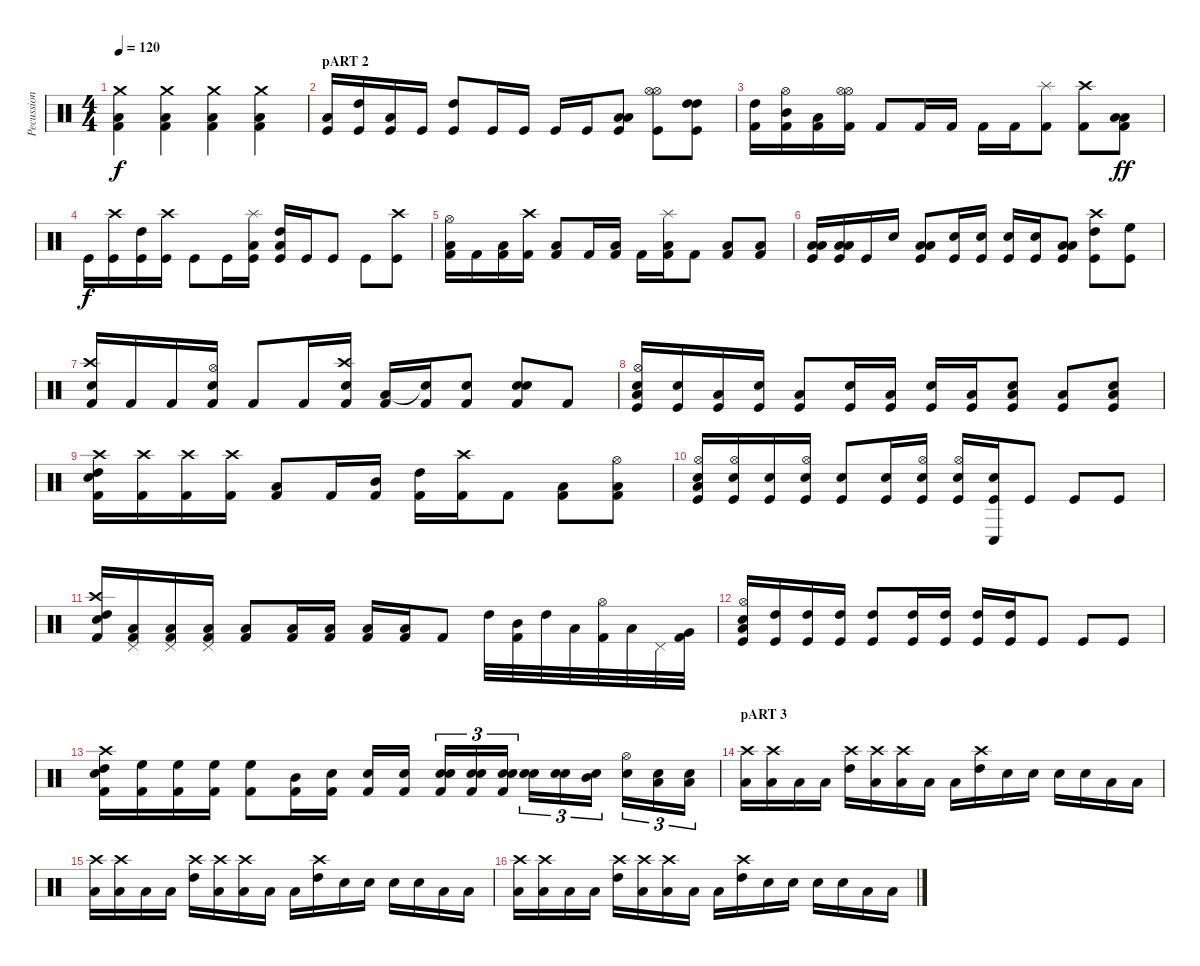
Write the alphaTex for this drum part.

\track ("Pecussion" "Pecussion") {instrument percussion}
\staff {score}
\articulation defaults
\ts (4 4)
\tempo 120
\clef neutral
\ks c
("Crash medium (hit)" "Low Floor Tom (hit)" "Kick (hit) 2").4{dy f} ("Crash medium (hit)" "Low Floor Tom (hit)" "Kick (hit) 2").4 ("Crash medium (hit)" "Low Floor Tom (hit)" "Kick (hit) 2").4 ("Crash medium (hit)" "Low Floor Tom (hit)" "Kick (hit) 2").4 |
\section ("" "pART 2")
("Low Floor Tom (hit)" "Kick (hit)").16 ("High Tom (hit)" "Kick (hit)").16 ("Low Floor Tom (hit)" "Kick (hit)").16 "Kick (hit)".16 ("High Tom (hit)" "Kick (hit)").8 "Kick (hit)".16 "Kick (hit)".16 "Kick (hit)".16 "Kick (hit)".16 ("Low Floor Tom (hit)" "Low Floor Tom (hit)" "Kick (hit)").8 ("Hi-Hat (open)" "Hi-Hat (open)" "Kick (hit)").8 ("High Tom (hit)" "High Tom (hit)" "Kick (hit)").8 |
("High Tom (hit)" "Kick (hit) 2").16 ("Mid Tom (hit)" "Hi-Hat (open)" "Kick (hit) 2").16 ("Low Tom (hit)" "Kick (hit) 2").16 ("Hi-Hat (open)" "Hi-Hat (open)" "Kick (hit) 2").16 "Kick (hit) 2".8 "Kick (hit) 2".16 "Kick (hit) 2".16 "Kick (hit) 2".16 "Kick (hit) 2".16 ("Splash (hit)" "Kick (hit) 2").8 ("Crash high (hit)" "Kick (hit) 2").8 ("Low Floor Tom (hit)" "Low Floor Tom (hit)" "Kick (hit) 2").8{dy ff} |
"Kick (hit)".16{dy f} ("Crash high (hit)" "Kick (hit)").16 ("High Tom (hit)" "Kick (hit)").16 ("Crash high (hit)" "Kick (hit)").16 "Kick (hit)".8 "Kick (hit)".16 ("Splash (hit)" "Low Tom (hit)" "Kick (hit)").16 ("High Tom (hit)" "Low Tom (hit)" "Kick (hit)").16 "Kick (hit)".16 "Kick (hit)".8 "Kick (hit)".8 ("Crash high (hit)" "Kick (hit)").8 |
("Hi-Hat (open)" "Low Tom (hit)" "Kick (hit) 2").16 "Kick (hit) 2".16 ("Low Tom (hit)" "Kick (hit) 2").16 ("Crash high (hit)" "Kick (hit) 2").16 ("Low Tom (hit)" "Kick (hit) 2").8 "Kick (hit) 2".16 ("Low Tom (hit)" "Kick (hit) 2").16 "Kick (hit) 2".16 ("Splash (hit)" "Low Tom (hit)" "Kick (hit) 2").16 "Kick (hit) 2".8 ("Low Tom (hit)" "Kick (hit) 2").8 ("Low Tom (hit)" "Kick (hit) 2").8 |
("Low Floor Tom (hit)" "Low Floor Tom (hit)" "Kick (hit)").16 ("Low Floor Tom (hit)" "Low Floor Tom (hit)" "Kick (hit)").16 "Kick (hit)".16 "Snare (hit)".16 ("Low Floor Tom (hit)" "Low Floor Tom (hit)" "Kick (hit)").8 ("Electric Snare (hit)" "Kick (hit)").16 ("Electric Snare (hit)" "Kick (hit)").16 ("Electric Snare (hit)" "Kick (hit)").16 ("Electric Snare (hit)" "Kick (hit)").16 ("Low Tom (hit)" "Low Tom (hit)" "Kick (hit)").8 ("High Tom (hit)" "Crash high (hit)" "Kick (hit)").8 ("High Floor Tom (hit)" "Kick (hit)").8 |
("Crash high (hit)" "Electric Snare (hit)" "Kick (hit) 2").16 "Kick (hit) 2".16 "Kick (hit) 2".16 ("Hi-Hat (open)" "Electric Snare (hit)" "Kick (hit) 2").16 "Kick (hit) 2".8 "Kick (hit) 2".16 ("Crash high (hit)" "Electric Snare (hit)" "Kick (hit) 2").16 ("Low Tom (hit)" "Kick (hit) 2").16 ("Snare (hit)"{t} "Kick (hit) 2").16 ("Electric Snare (hit)" "Kick (hit) 2").8 ("Electric Snare (hit)" "Snare (hit) 2" "Kick (hit) 2").8 "Kick (hit) 2".8 |
("Low Tom (hit)" "Electric Snare (hit)" "Hi-Hat (open)" "Kick (hit)").16 ("Electric Snare (hit)" "Kick (hit)").16 ("Low Tom (hit)" "Kick (hit)").16 ("Electric Snare (hit)" "Kick (hit)").16 ("Low Tom (hit)" "Kick (hit)").8 ("Electric Snare (hit)" "Kick (hit)").16 ("Low Floor Tom (hit)" "Kick (hit)").16 ("Electric Snare (hit)" "Kick (hit)").16 ("Low Floor Tom (hit)" "Kick (hit)").16 ("Electric Snare (hit)" "Low Floor Tom (hit)" "Kick (hit)").8 ("Low Floor Tom (hit)" "Kick (hit)").8 ("Electric Snare (hit)" "Low Floor Tom (hit)" "Kick (hit)").8 |
("Crash high (hit)" "Electric Snare (hit)" "High Tom (hit)" "Kick (hit) 2").16 ("Crash high (hit)" "Kick (hit) 2").16 ("Crash high (hit)" "Kick (hit) 2").16 ("Crash high (hit)" "Kick (hit) 2").16 ("Low Tom (hit)" "Kick (hit) 2").8 "Kick (hit) 2".16 ("Mid Tom (hit)" "Kick (hit) 2").16 ("High Tom (hit)" "Kick (hit) 2").16 ("Crash high (hit)" "Kick (hit) 2").16 "Kick (hit) 2".8 ("Low Tom (hit)" "Kick (hit) 2").8 ("Hi-Hat (open)" "Low Floor Tom (hit)" "Kick (hit) 2").8 |
("Low Tom (hit)" "Electric Snare (hit)" "Hi-Hat (open)" "Kick (hit)").16 ("Hi-Hat (open)" "Electric Snare (hit)" "Kick (hit)").16 ("Electric Snare (hit)" "Kick (hit)").16 ("Hi-Hat (open)" "Electric Snare (hit)" "Kick (hit)").16 ("Electric Snare (hit)" "Kick (hit)").8 ("Electric Snare (hit)" "Kick (hit)").16 ("Hi-Hat (open)" "Electric Snare (hit)" "Kick (hit)").16 ("Hi-Hat (open)" "Electric Snare (hit)" "Kick (hit)").16 ("Conga low (hit)" "Electric Snare (hit)" "Kick (hit)").16 "Kick (hit)".8 "Kick (hit)".8 "Kick (hit)".8 |
("Crash high (hit)" "Electric Snare (hit)" "High Tom (hit)" "Kick (hit) 2").16 ("Pedal Hi-Hat (hit)" "Low Tom (hit)" "Kick (hit) 2").16 ("Pedal Hi-Hat (hit)" "Low Tom (hit)" "Kick (hit) 2").16 ("Pedal Hi-Hat (hit)" "Low Tom (hit)" "Kick (hit) 2").16 ("Low Tom (hit)" "Kick (hit) 2").8 ("Low Tom (hit)" "Kick (hit) 2").16 ("Low Tom (hit)" "Kick (hit) 2").16 ("Low Tom (hit)" "Kick (hit) 2").16 ("Low Tom (hit)" "Kick (hit) 2").16 "Kick (hit) 2".8 "High Tom (hit)".32 ("Mid Tom (hit)" "Kick (hit) 2").32 "High Tom (hit)".32 "Low Tom (hit)".32 ("Hi-Hat (open)" "Kick (hit) 2").32 "Low Tom (hit)".32 "Pedal Hi-Hat (hit)".32 ("Very Low Tom (hit)" "Kick (hit) 2").32 |
("Low Tom (hit)" "Electric Snare (hit)" "Hi-Hat (open)" "Kick (hit)").16 ("High Tom (hit)" "Kick (hit)").16 ("High Tom (hit)" "Kick (hit)").16 ("High Tom (hit)" "Kick (hit)").16 ("High Tom (hit)" "Kick (hit)").8 ("High Tom (hit)" "Kick (hit)").16 ("High Tom (hit)" "Kick (hit)").16 ("High Tom (hit)" "Kick (hit)").16 ("High Tom (hit)" "Kick (hit)").16 "Kick (hit)".8 "Kick (hit)".8 "Kick (hit)".8 |
("Crash high (hit)" "Electric Snare (hit)" "High Tom (hit)" "Kick (hit) 2").16 ("High Floor Tom (hit)" "Kick (hit) 2").16 ("High Floor Tom (hit)" "Kick (hit) 2").16 ("High Floor Tom (hit)" "Kick (hit) 2").16 ("High Floor Tom (hit)" "Kick (hit) 2").8 ("Mid Tom (hit)" "Kick (hit) 2").16 ("Electric Snare (hit)" "Kick (hit) 2").16 ("Electric Snare (hit)" "Kick (hit) 2").16 ("Electric Snare (hit)" "Kick (hit) 2").16 ("Electric Snare (hit)" "Electric Snare (hit)" "Kick (hit) 2").16{tu (3 2)} ("Electric Snare (hit)" "Electric Snare (hit)" "Kick (hit) 2").16{tu (3 2)} ("Electric Snare (hit)" "Electric Snare (hit)" "Kick (hit) 2").16{tu (3 2)} ("Electric Snare (hit)" "Electric Snare (hit)").16{tu (3 2)} ("Electric Snare (hit)" "Electric Snare (hit)").16{tu (3 2)} ("Electric Snare (hit)" "Mid Tom (hit)").16{tu (3 2)} ("Electric Snare (hit)" "Hi-Hat (open)").16{tu (3 2)} ("Electric Snare (hit)" "Low Floor Tom (hit)").16{tu (3 2)} ("Electric Snare (hit)" "Low Floor Tom (hit)").16{tu (3 2)} |
\section ("" "pART 3")
("Crash high (hit)" "Low Tom (hit)").16 ("Crash high (hit)" "Low Tom (hit)").16 "Low Tom (hit)".16 "Low Tom (hit)".16 ("High Tom (hit)" "Crash high (hit)").16 ("Crash high (hit)" "Low Tom (hit)").16 ("Crash high (hit)" "Low Tom (hit)").16 "Low Tom (hit)".16 "Low Tom (hit)".16 ("Crash high (hit)" "High Tom (hit)").16 "Electric Snare (hit)".16 "Electric Snare (hit)".16 "Electric Snare (hit)".16 "Electric Snare (hit)".16 "Low Floor Tom (hit)".16 "Low Floor Tom (hit)".16 |
("Crash high (hit)" "Low Tom (hit)").16 ("Crash high (hit)" "Low Tom (hit)").16 "Low Tom (hit)".16 "Low Tom (hit)".16 ("High Tom (hit)" "Crash high (hit)").16 ("Crash high (hit)" "Low Tom (hit)").16 ("Crash high (hit)" "Low Tom (hit)").16 "Low Tom (hit)".16 "Low Tom (hit)".16 ("Crash high (hit)" "High Tom (hit)").16 "Electric Snare (hit)".16 "Electric Snare (hit)".16 "Electric Snare (hit)".16 "Electric Snare (hit)".16 "Low Floor Tom (hit)".16 "Low Floor Tom (hit)".16 |
("Crash high (hit)" "Low Tom (hit)").16 ("Crash high (hit)" "Low Tom (hit)").16 "Low Tom (hit)".16 "Low Tom (hit)".16 ("High Tom (hit)" "Crash high (hit)").16 ("Crash high (hit)" "Low Tom (hit)").16 ("Crash high (hit)" "Low Tom (hit)").16 "Low Tom (hit)".16 "Low Tom (hit)".16 ("Crash high (hit)" "High Tom (hit)").16 "Electric Snare (hit)".16 "Electric Snare (hit)".16 "Electric Snare (hit)".16 "Electric Snare (hit)".16 "Low Floor Tom (hit)".16 "Low Floor Tom (hit)".16
